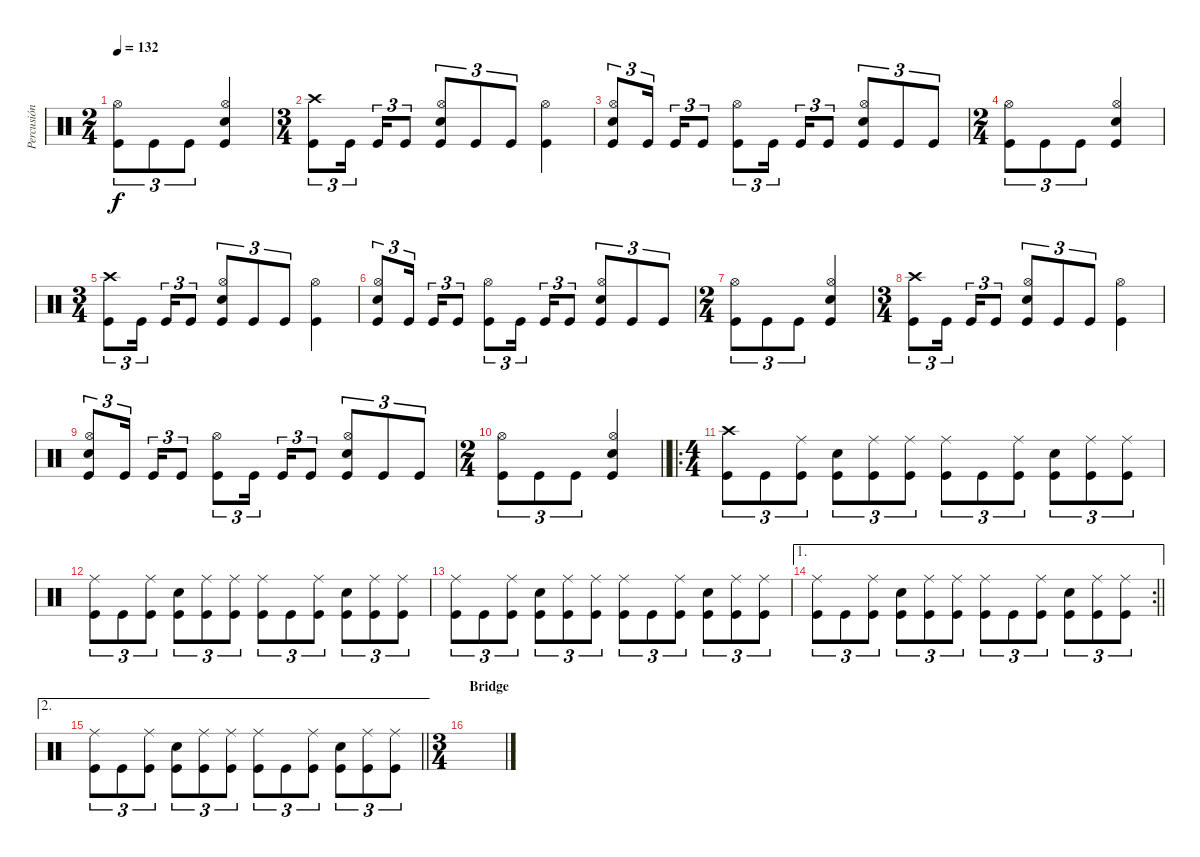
\track ("Percusión" "Percusión") {instrument percussion}
\staff
\articulation defaults
\ts (2 4)
\tempo 132
\clef neutral
\ks c
("Kick (hit)" "Hi-Hat (open)").8{tu (3 2) dy f} "Kick (hit)".8{tu (3 2)} "Kick (hit)".8{tu (3 2)} ("Kick (hit)" "Hi-Hat (open)" "Electric Snare (hit)").4 |
\ts (3 4)
("Kick (hit)" "Crash high (hit)").8{tu (3 2)} "Kick (hit)".16{tu (3 2) beam splitsecondary} "Kick (hit)".16{tu (3 2)} "Kick (hit)".8{tu (3 2)} ("Kick (hit)" "Hi-Hat (open)" "Electric Snare (hit)").8{tu (3 2)} "Kick (hit)".8{tu (3 2)} "Kick (hit)".8{tu (3 2)} ("Kick (hit)" "Hi-Hat (open)").4 |
("Kick (hit)" "Hi-Hat (open)" "Electric Snare (hit)").8{tu (3 2)} "Kick (hit)".16{tu (3 2) beam splitsecondary} "Kick (hit)".16{tu (3 2)} "Kick (hit)".8{tu (3 2)} ("Kick (hit)" "Hi-Hat (open)").8{tu (3 2)} "Kick (hit)".16{tu (3 2) beam splitsecondary} "Kick (hit)".16{tu (3 2)} "Kick (hit)".8{tu (3 2)} ("Kick (hit)" "Hi-Hat (open)" "Electric Snare (hit)").8{tu (3 2)} "Kick (hit)".8{tu (3 2)} "Kick (hit)".8{tu (3 2)} |
\ts (2 4)
("Kick (hit)" "Hi-Hat (open)").8{tu (3 2)} "Kick (hit)".8{tu (3 2)} "Kick (hit)".8{tu (3 2)} ("Kick (hit)" "Hi-Hat (open)" "Electric Snare (hit)").4 |
\ts (3 4)
("Kick (hit)" "Crash high (hit)").8{tu (3 2)} "Kick (hit)".16{tu (3 2) beam splitsecondary} "Kick (hit)".16{tu (3 2)} "Kick (hit)".8{tu (3 2)} ("Kick (hit)" "Hi-Hat (open)" "Electric Snare (hit)").8{tu (3 2)} "Kick (hit)".8{tu (3 2)} "Kick (hit)".8{tu (3 2)} ("Kick (hit)" "Hi-Hat (open)").4 |
("Kick (hit)" "Hi-Hat (open)" "Electric Snare (hit)").8{tu (3 2)} "Kick (hit)".16{tu (3 2) beam splitsecondary} "Kick (hit)".16{tu (3 2)} "Kick (hit)".8{tu (3 2)} ("Kick (hit)" "Hi-Hat (open)").8{tu (3 2)} "Kick (hit)".16{tu (3 2) beam splitsecondary} "Kick (hit)".16{tu (3 2)} "Kick (hit)".8{tu (3 2)} ("Kick (hit)" "Hi-Hat (open)" "Electric Snare (hit)").8{tu (3 2)} "Kick (hit)".8{tu (3 2)} "Kick (hit)".8{tu (3 2)} |
\ts (2 4)
("Kick (hit)" "Hi-Hat (open)").8{tu (3 2)} "Kick (hit)".8{tu (3 2)} "Kick (hit)".8{tu (3 2)} ("Kick (hit)" "Hi-Hat (open)" "Electric Snare (hit)").4 |
\ts (3 4)
("Kick (hit)" "Crash high (hit)").8{tu (3 2)} "Kick (hit)".16{tu (3 2) beam splitsecondary} "Kick (hit)".16{tu (3 2)} "Kick (hit)".8{tu (3 2)} ("Kick (hit)" "Hi-Hat (open)" "Electric Snare (hit)").8{tu (3 2)} "Kick (hit)".8{tu (3 2)} "Kick (hit)".8{tu (3 2)} ("Kick (hit)" "Hi-Hat (open)").4 |
("Kick (hit)" "Hi-Hat (open)" "Electric Snare (hit)").8{tu (3 2)} "Kick (hit)".16{tu (3 2) beam splitsecondary} "Kick (hit)".16{tu (3 2)} "Kick (hit)".8{tu (3 2)} ("Kick (hit)" "Hi-Hat (open)").8{tu (3 2)} "Kick (hit)".16{tu (3 2) beam splitsecondary} "Kick (hit)".16{tu (3 2)} "Kick (hit)".8{tu (3 2)} ("Kick (hit)" "Hi-Hat (open)" "Electric Snare (hit)").8{tu (3 2)} "Kick (hit)".8{tu (3 2)} "Kick (hit)".8{tu (3 2)} |
\ts (2 4)
\barLineRight lightlight
("Kick (hit)" "Hi-Hat (open)").8{tu (3 2)} "Kick (hit)".8{tu (3 2)} "Kick (hit)".8{tu (3 2)} ("Kick (hit)" "Hi-Hat (open)" "Electric Snare (hit)").4 |
\ro
\ts (4 4)
("Kick (hit)" "Crash high (hit)").8{tu (3 2)} "Kick (hit)".8{tu (3 2)} ("Kick (hit)" "Ride (middle)").8{tu (3 2)} ("Kick (hit)" "Electric Snare (hit)").8{tu (3 2)} ("Kick (hit)" "Ride (middle)").8{tu (3 2)} ("Kick (hit)" "Ride (middle)").8{tu (3 2)} ("Kick (hit)" "Ride (middle)").8{tu (3 2)} "Kick (hit)".8{tu (3 2)} ("Kick (hit)" "Ride (middle)").8{tu (3 2)} ("Kick (hit)" "Electric Snare (hit)").8{tu (3 2)} ("Kick (hit)" "Ride (middle)").8{tu (3 2)} ("Kick (hit)" "Ride (middle)").8{tu (3 2)} |
("Kick (hit)" "Ride (middle)").8{tu (3 2)} "Kick (hit)".8{tu (3 2)} ("Kick (hit)" "Ride (middle)").8{tu (3 2)} ("Kick (hit)" "Electric Snare (hit)").8{tu (3 2)} ("Kick (hit)" "Ride (middle)").8{tu (3 2)} ("Kick (hit)" "Ride (middle)").8{tu (3 2)} ("Kick (hit)" "Ride (middle)").8{tu (3 2)} "Kick (hit)".8{tu (3 2)} ("Kick (hit)" "Ride (middle)").8{tu (3 2)} ("Kick (hit)" "Electric Snare (hit)").8{tu (3 2)} ("Kick (hit)" "Ride (middle)").8{tu (3 2)} ("Kick (hit)" "Ride (middle)").8{tu (3 2)} |
("Kick (hit)" "Ride (middle)").8{tu (3 2)} "Kick (hit)".8{tu (3 2)} ("Kick (hit)" "Ride (middle)").8{tu (3 2)} ("Kick (hit)" "Electric Snare (hit)").8{tu (3 2)} ("Kick (hit)" "Ride (middle)").8{tu (3 2)} ("Kick (hit)" "Ride (middle)").8{tu (3 2)} ("Kick (hit)" "Ride (middle)").8{tu (3 2)} "Kick (hit)".8{tu (3 2)} ("Kick (hit)" "Ride (middle)").8{tu (3 2)} ("Kick (hit)" "Electric Snare (hit)").8{tu (3 2)} ("Kick (hit)" "Ride (middle)").8{tu (3 2)} ("Kick (hit)" "Ride (middle)").8{tu (3 2)} |
\ae 1
\rc 2
\barLineRight lightlight
("Kick (hit)" "Ride (middle)").8{tu (3 2)} "Kick (hit)".8{tu (3 2)} ("Kick (hit)" "Ride (middle)").8{tu (3 2)} ("Kick (hit)" "Electric Snare (hit)").8{tu (3 2)} ("Kick (hit)" "Ride (middle)").8{tu (3 2)} ("Kick (hit)" "Ride (middle)").8{tu (3 2)} ("Kick (hit)" "Ride (middle)").8{tu (3 2)} "Kick (hit)".8{tu (3 2)} ("Kick (hit)" "Ride (middle)").8{tu (3 2)} ("Kick (hit)" "Electric Snare (hit)").8{tu (3 2)} ("Kick (hit)" "Ride (middle)").8{tu (3 2)} ("Kick (hit)" "Ride (middle)").8{tu (3 2)} |
\ae 2
\barLineRight lightlight
("Kick (hit)" "Ride (middle)").8{tu (3 2)} "Kick (hit)".8{tu (3 2)} ("Kick (hit)" "Ride (middle)").8{tu (3 2)} ("Kick (hit)" "Electric Snare (hit)").8{tu (3 2)} ("Kick (hit)" "Ride (middle)").8{tu (3 2)} ("Kick (hit)" "Ride (middle)").8{tu (3 2)} ("Kick (hit)" "Ride (middle)").8{tu (3 2)} "Kick (hit)".8{tu (3 2)} ("Kick (hit)" "Ride (middle)").8{tu (3 2)} ("Kick (hit)" "Electric Snare (hit)").8{tu (3 2)} ("Kick (hit)" "Ride (middle)").8{tu (3 2)} ("Kick (hit)" "Ride (middle)").8{tu (3 2)} |
\ts (3 4)
\section ("" "Bridge")
